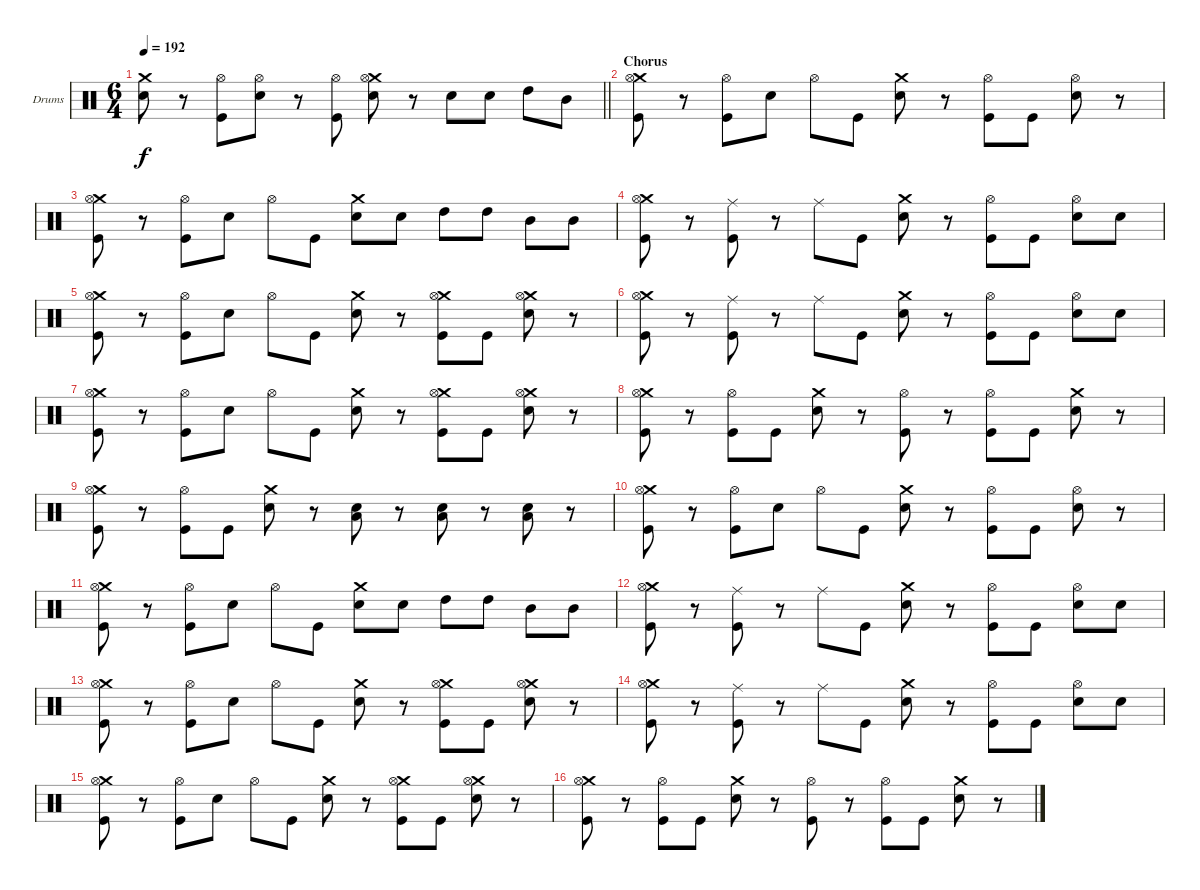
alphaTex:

\bracketExtendMode groupsimilarinstruments
\firstSystemTrackNameOrientation horizontal
\otherSystemsTrackNameOrientation horizontal
\track ("Drumkit" "Drums") {instrument percussion}
\staff {score}
\articulation defaults
\ts (6 4)
\tempo 192
\clef neutral
\barLineRight lightlight
\ks c
("Crash medium (hit)" "Snare (hit) 2").8{dy f} r.8 ("Hi-Hat (open)" "Kick (hit)").8 ("Hi-Hat (open)" "Snare (hit) 2").8 r.8 ("Hi-Hat (open)" "Kick (hit)").8 ("Crash medium (hit)" "Hi-Hat (open)" "Snare (hit) 2").8 r.8 "Snare (hit) 2".8 "Snare (hit) 2".8 "High Tom (hit)".8 "Mid Tom (hit)".8 |
\section ("" "Chorus")
("Crash medium (hit)" "Hi-Hat (open)" "Kick (hit)").8 r.8 ("Hi-Hat (open)" "Kick (hit)").8 "Snare (hit) 2".8 "Hi-Hat (open)".8 "Kick (hit)".8 ("Crash medium (hit)" "Snare (hit) 2").8 r.8 ("Hi-Hat (open)" "Kick (hit)").8 "Kick (hit)".8 ("Hi-Hat (open)" "Snare (hit) 2").8 r.8 |
("Crash medium (hit)" "Hi-Hat (open)" "Kick (hit)").8 r.8 ("Hi-Hat (open)" "Kick (hit)").8 "Snare (hit) 2".8 "Hi-Hat (open)".8 "Kick (hit)".8 ("Crash medium (hit)" "Snare (hit) 2").8 "Snare (hit) 2".8 "High Tom (hit)".8 "High Tom (hit)".8 "Mid Tom (hit)".8 "Mid Tom (hit)".8 |
("Crash medium (hit)" "Hi-Hat (open)" "Kick (hit)").8 r.8 ("Ride (middle)" "Kick (hit)").8 r.8 "Ride (middle)".8 "Kick (hit)".8 ("Crash medium (hit)" "Snare (hit) 2").8 r.8 ("Hi-Hat (open)" "Kick (hit)").8 "Kick (hit)".8 ("Hi-Hat (open)" "Snare (hit) 2").8 "Snare (hit) 2".8 |
("Crash medium (hit)" "Hi-Hat (open)" "Kick (hit)").8 r.8 ("Hi-Hat (open)" "Kick (hit)").8 "Snare (hit) 2".8 "Hi-Hat (open)".8 "Kick (hit)".8 ("Crash medium (hit)" "Snare (hit) 2").8 r.8 ("Crash medium (hit)" "Hi-Hat (open)" "Kick (hit)").8 "Kick (hit)".8 ("Crash medium (hit)" "Hi-Hat (open)" "Snare (hit) 2").8 r.8 |
("Crash medium (hit)" "Hi-Hat (open)" "Kick (hit)").8 r.8 ("Ride (middle)" "Kick (hit)").8 r.8 "Ride (middle)".8 "Kick (hit)".8 ("Crash medium (hit)" "Snare (hit) 2").8 r.8 ("Hi-Hat (open)" "Kick (hit)").8 "Kick (hit)".8 ("Hi-Hat (open)" "Snare (hit) 2").8 "Snare (hit) 2".8 |
("Crash medium (hit)" "Hi-Hat (open)" "Kick (hit)").8 r.8 ("Hi-Hat (open)" "Kick (hit)").8 "Snare (hit) 2".8 "Hi-Hat (open)".8 "Kick (hit)".8 ("Crash medium (hit)" "Snare (hit) 2").8 r.8 ("Crash medium (hit)" "Hi-Hat (open)" "Kick (hit)").8 "Kick (hit)".8 ("Crash medium (hit)" "Hi-Hat (open)" "Snare (hit) 2").8 r.8 |
("Crash medium (hit)" "Hi-Hat (open)" "Kick (hit)").8 r.8 ("Hi-Hat (open)" "Kick (hit)").8 "Kick (hit)".8 ("Crash medium (hit)" "Snare (hit) 2").8 r.8 ("Hi-Hat (open)" "Kick (hit)").8 r.8 ("Hi-Hat (open)" "Kick (hit)").8 "Kick (hit)".8 ("Crash medium (hit)" "Snare (hit) 2").8 r.8 |
("Crash medium (hit)" "Hi-Hat (open)" "Kick (hit)").8 r.8 ("Hi-Hat (open)" "Kick (hit)").8 "Kick (hit)".8 ("Crash medium (hit)" "Snare (hit) 2").8 r.8 ("Low Tom (hit)" "Snare (hit) 2").8 r.8 ("Low Tom (hit)" "Snare (hit) 2").8 r.8 ("Low Tom (hit)" "Snare (hit) 2").8 r.8 |
("Crash medium (hit)" "Hi-Hat (open)" "Kick (hit)").8 r.8 ("Hi-Hat (open)" "Kick (hit)").8 "Snare (hit) 2".8 "Hi-Hat (open)".8 "Kick (hit)".8 ("Crash medium (hit)" "Snare (hit) 2").8 r.8 ("Hi-Hat (open)" "Kick (hit)").8 "Kick (hit)".8 ("Hi-Hat (open)" "Snare (hit) 2").8 r.8 |
("Crash medium (hit)" "Hi-Hat (open)" "Kick (hit)").8 r.8 ("Hi-Hat (open)" "Kick (hit)").8 "Snare (hit) 2".8 "Hi-Hat (open)".8 "Kick (hit)".8 ("Crash medium (hit)" "Snare (hit) 2").8 "Snare (hit) 2".8 "High Tom (hit)".8 "High Tom (hit)".8 "Mid Tom (hit)".8 "Mid Tom (hit)".8 |
("Crash medium (hit)" "Hi-Hat (open)" "Kick (hit)").8 r.8 ("Ride (middle)" "Kick (hit)").8 r.8 "Ride (middle)".8 "Kick (hit)".8 ("Crash medium (hit)" "Snare (hit) 2").8 r.8 ("Hi-Hat (open)" "Kick (hit)").8 "Kick (hit)".8 ("Hi-Hat (open)" "Snare (hit) 2").8 "Snare (hit) 2".8 |
("Crash medium (hit)" "Hi-Hat (open)" "Kick (hit)").8 r.8 ("Hi-Hat (open)" "Kick (hit)").8 "Snare (hit) 2".8 "Hi-Hat (open)".8 "Kick (hit)".8 ("Crash medium (hit)" "Snare (hit) 2").8 r.8 ("Crash medium (hit)" "Hi-Hat (open)" "Kick (hit)").8 "Kick (hit)".8 ("Crash medium (hit)" "Hi-Hat (open)" "Snare (hit) 2").8 r.8 |
("Crash medium (hit)" "Hi-Hat (open)" "Kick (hit)").8 r.8 ("Ride (middle)" "Kick (hit)").8 r.8 "Ride (middle)".8 "Kick (hit)".8 ("Crash medium (hit)" "Snare (hit) 2").8 r.8 ("Hi-Hat (open)" "Kick (hit)").8 "Kick (hit)".8 ("Hi-Hat (open)" "Snare (hit) 2").8 "Snare (hit) 2".8 |
("Crash medium (hit)" "Hi-Hat (open)" "Kick (hit)").8 r.8 ("Hi-Hat (open)" "Kick (hit)").8 "Snare (hit) 2".8 "Hi-Hat (open)".8 "Kick (hit)".8 ("Crash medium (hit)" "Snare (hit) 2").8 r.8 ("Crash medium (hit)" "Hi-Hat (open)" "Kick (hit)").8 "Kick (hit)".8 ("Crash medium (hit)" "Hi-Hat (open)" "Snare (hit) 2").8 r.8 |
("Crash medium (hit)" "Hi-Hat (open)" "Kick (hit)").8 r.8 ("Hi-Hat (open)" "Kick (hit)").8 "Kick (hit)".8 ("Crash medium (hit)" "Snare (hit) 2").8 r.8 ("Hi-Hat (open)" "Kick (hit)").8 r.8 ("Hi-Hat (open)" "Kick (hit)").8 "Kick (hit)".8 ("Crash medium (hit)" "Snare (hit) 2").8 r.8
